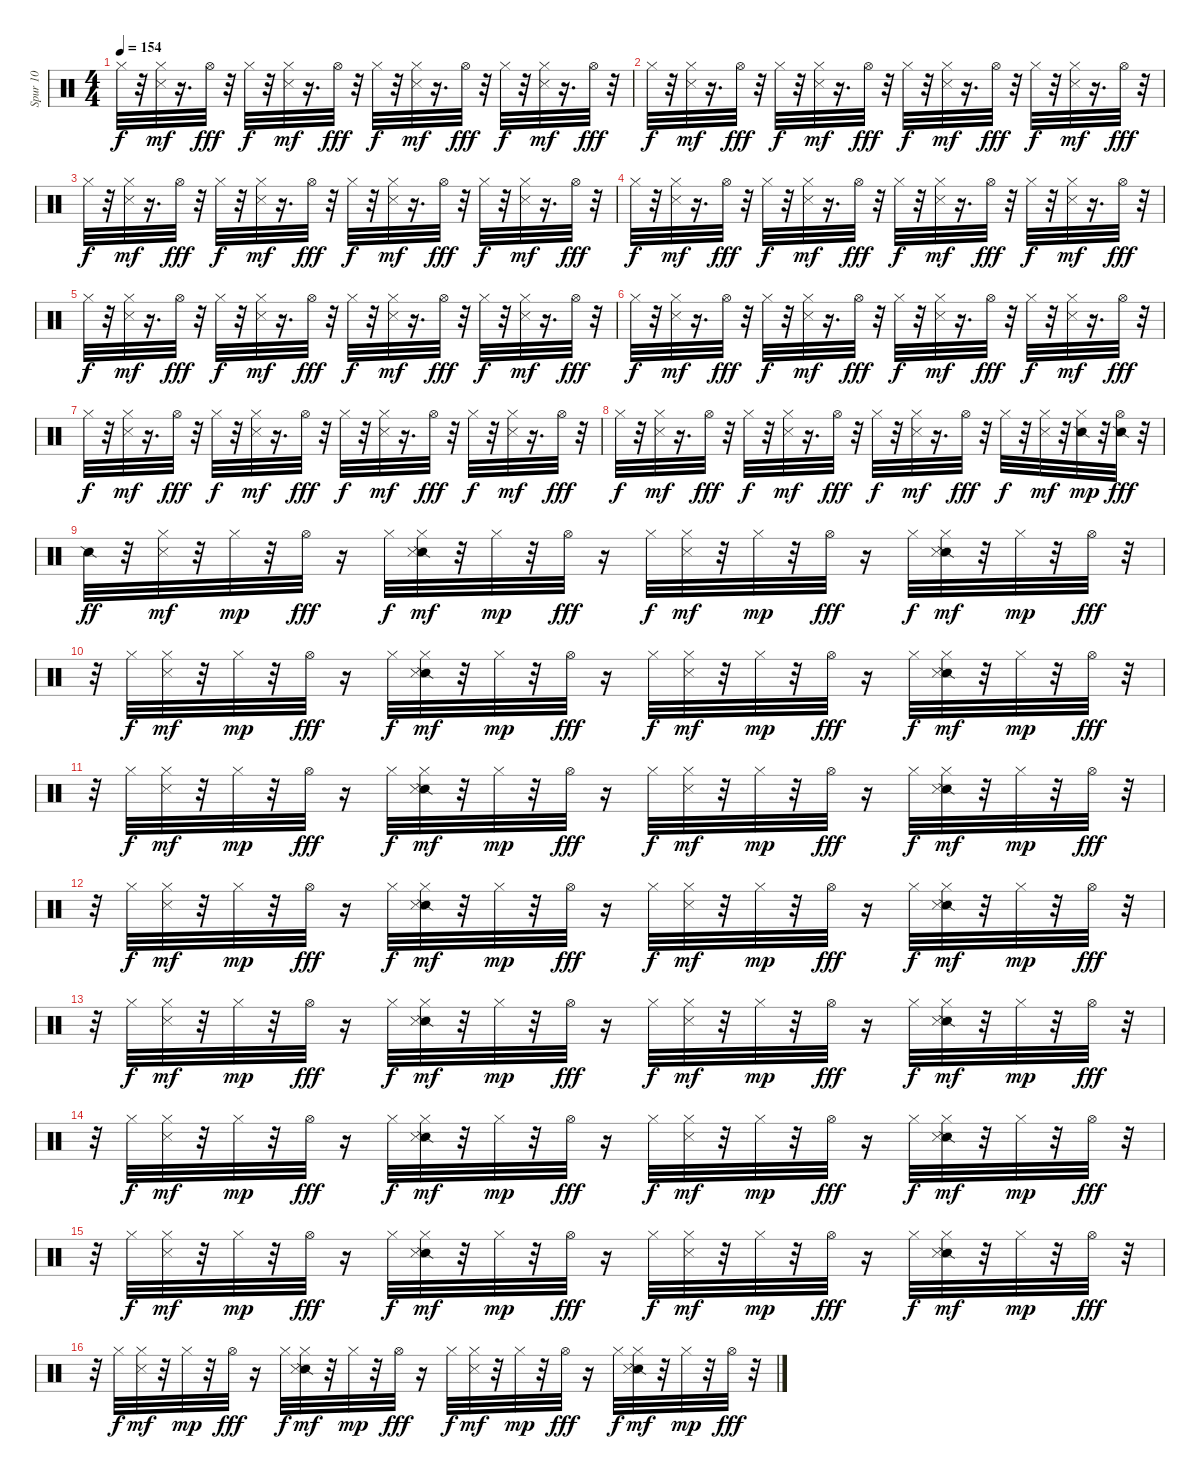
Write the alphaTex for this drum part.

\track ("Spur 10" "Spur 10") {instrument percussion}
\staff {score}
\articulation defaults
\ts (4 4)
\tempo 154
\clef neutral
\ks c "Hi-Hat (closed)".32{dy f}
r.32 ("Metronome (hit)" "Hi-Hat (closed)").32{dy mf} r.16{d} "Hi-Hat (open)".32{dy fff} r.32 "Hi-Hat (closed)".32{dy f} r.32 ("Metronome (hit)" "Hi-Hat (closed)").32{dy mf} r.16{d} "Hi-Hat (open)".32{dy fff} r.32 "Hi-Hat (closed)".32{dy f} r.32 ("Metronome (hit)" "Hi-Hat (closed)").32{dy mf} r.16{d} "Hi-Hat (open)".32{dy fff} r.32 "Hi-Hat (closed)".32{dy f} r.32 ("Metronome (hit)" "Hi-Hat (closed)").32{dy mf} r.16{d} "Hi-Hat (open)".32{dy fff} r.32 |
"Hi-Hat (closed)".32{dy f} r.32 ("Metronome (hit)" "Hi-Hat (closed)").32{dy mf} r.16{d} "Hi-Hat (open)".32{dy fff} r.32 "Hi-Hat (closed)".32{dy f} r.32 ("Metronome (hit)" "Hi-Hat (closed)").32{dy mf} r.16{d} "Hi-Hat (open)".32{dy fff} r.32 "Hi-Hat (closed)".32{dy f} r.32 ("Metronome (hit)" "Hi-Hat (closed)").32{dy mf} r.16{d} "Hi-Hat (open)".32{dy fff} r.32 "Hi-Hat (closed)".32{dy f} r.32 ("Metronome (hit)" "Hi-Hat (closed)").32{dy mf} r.16{d} "Hi-Hat (open)".32{dy fff} r.32 |
"Hi-Hat (closed)".32{dy f} r.32 ("Metronome (hit)" "Hi-Hat (closed)").32{dy mf} r.16{d} "Hi-Hat (open)".32{dy fff} r.32 "Hi-Hat (closed)".32{dy f} r.32 ("Metronome (hit)" "Hi-Hat (closed)").32{dy mf} r.16{d} "Hi-Hat (open)".32{dy fff} r.32 "Hi-Hat (closed)".32{dy f} r.32 ("Metronome (hit)" "Hi-Hat (closed)").32{dy mf} r.16{d} "Hi-Hat (open)".32{dy fff} r.32 "Hi-Hat (closed)".32{dy f} r.32 ("Metronome (hit)" "Hi-Hat (closed)").32{dy mf} r.16{d} "Hi-Hat (open)".32{dy fff} r.32 |
"Hi-Hat (closed)".32{dy f} r.32 ("Metronome (hit)" "Hi-Hat (closed)").32{dy mf} r.16{d} "Hi-Hat (open)".32{dy fff} r.32 "Hi-Hat (closed)".32{dy f} r.32 ("Metronome (hit)" "Hi-Hat (closed)").32{dy mf} r.16{d} "Hi-Hat (open)".32{dy fff} r.32 "Hi-Hat (closed)".32{dy f} r.32 ("Metronome (hit)" "Hi-Hat (closed)").32{dy mf} r.16{d} "Hi-Hat (open)".32{dy fff} r.32 "Hi-Hat (closed)".32{dy f} r.32 ("Metronome (hit)" "Hi-Hat (closed)").32{dy mf} r.16{d} "Hi-Hat (open)".32{dy fff} r.32 |
"Hi-Hat (closed)".32{dy f} r.32 ("Metronome (hit)" "Hi-Hat (closed)").32{dy mf} r.16{d} "Hi-Hat (open)".32{dy fff} r.32 "Hi-Hat (closed)".32{dy f} r.32 ("Metronome (hit)" "Hi-Hat (closed)").32{dy mf} r.16{d} "Hi-Hat (open)".32{dy fff} r.32 "Hi-Hat (closed)".32{dy f} r.32 ("Metronome (hit)" "Hi-Hat (closed)").32{dy mf} r.16{d} "Hi-Hat (open)".32{dy fff} r.32 "Hi-Hat (closed)".32{dy f} r.32 ("Metronome (hit)" "Hi-Hat (closed)").32{dy mf} r.16{d} "Hi-Hat (open)".32{dy fff} r.32 |
"Hi-Hat (closed)".32{dy f} r.32 ("Metronome (hit)" "Hi-Hat (closed)").32{dy mf} r.16{d} "Hi-Hat (open)".32{dy fff} r.32 "Hi-Hat (closed)".32{dy f} r.32 ("Metronome (hit)" "Hi-Hat (closed)").32{dy mf} r.16{d} "Hi-Hat (open)".32{dy fff} r.32 "Hi-Hat (closed)".32{dy f} r.32 ("Metronome (hit)" "Hi-Hat (closed)").32{dy mf} r.16{d} "Hi-Hat (open)".32{dy fff} r.32 "Hi-Hat (closed)".32{dy f} r.32 ("Metronome (hit)" "Hi-Hat (closed)").32{dy mf} r.16{d} "Hi-Hat (open)".32{dy fff} r.32 |
"Hi-Hat (closed)".32{dy f} r.32 ("Metronome (hit)" "Hi-Hat (closed)").32{dy mf} r.16{d} "Hi-Hat (open)".32{dy fff} r.32 "Hi-Hat (closed)".32{dy f} r.32 ("Metronome (hit)" "Hi-Hat (closed)").32{dy mf} r.16{d} "Hi-Hat (open)".32{dy fff} r.32 "Hi-Hat (closed)".32{dy f} r.32 ("Metronome (hit)" "Hi-Hat (closed)").32{dy mf} r.16{d} "Hi-Hat (open)".32{dy fff} r.32 "Hi-Hat (closed)".32{dy f} r.32 ("Metronome (hit)" "Hi-Hat (closed)").32{dy mf} r.16{d} "Hi-Hat (open)".32{dy fff} r.32 |
"Hi-Hat (closed)".32{dy f} r.32 ("Metronome (hit)" "Hi-Hat (closed)").32{dy mf} r.16{d} "Hi-Hat (open)".32{dy fff} r.32 "Hi-Hat (closed)".32{dy f} r.32 ("Metronome (hit)" "Hi-Hat (closed)").32{dy mf} r.16{d} "Hi-Hat (open)".32{dy fff} r.32 "Hi-Hat (closed)".32{dy f} r.32 ("Metronome (hit)" "Hi-Hat (closed)").32{dy mf} r.16{d} "Hi-Hat (open)".32{dy fff} r.32 "Hi-Hat (closed)".32{dy f} r.32 ("Metronome (hit)" "Hi-Hat (closed)").32{dy mf} r.32 ("Snare (side stick) 2" "Hi-Hat (closed)").32{dy mp} r.32 ("Snare (side stick) 2" "Hi-Hat (open)").32{dy fff} r.32 |
"Snare (side stick) 2".32{dy ff} r.32 ("Metronome (hit)" "Hi-Hat (closed)").32{dy mf} r.32 "Hi-Hat (closed)".32{dy mp} r.32 "Hi-Hat (open)".32{dy fff} r.16 "Hi-Hat (closed)".32{dy f} ("Snare (side stick) 2" "Metronome (hit)" "Hi-Hat (closed)").32{dy mf} r.32 "Hi-Hat (closed)".32{dy mp} r.32 "Hi-Hat (open)".32{dy fff} r.16 "Hi-Hat (closed)".32{dy f} ("Metronome (hit)" "Hi-Hat (closed)").32{dy mf} r.32 "Hi-Hat (closed)".32{dy mp} r.32 "Hi-Hat (open)".32{dy fff} r.16 "Hi-Hat (closed)".32{dy f} ("Snare (side stick) 2" "Metronome (hit)" "Hi-Hat (closed)").32{dy mf} r.32 "Hi-Hat (closed)".32{dy mp} r.32 "Hi-Hat (open)".32{dy fff} r.32 |
r.32 "Hi-Hat (closed)".32{dy f} ("Metronome (hit)" "Hi-Hat (closed)").32{dy mf} r.32 "Hi-Hat (closed)".32{dy mp} r.32 "Hi-Hat (open)".32{dy fff} r.16 "Hi-Hat (closed)".32{dy f} ("Snare (side stick) 2" "Metronome (hit)" "Hi-Hat (closed)").32{dy mf} r.32 "Hi-Hat (closed)".32{dy mp} r.32 "Hi-Hat (open)".32{dy fff} r.16 "Hi-Hat (closed)".32{dy f} ("Metronome (hit)" "Hi-Hat (closed)").32{dy mf} r.32 "Hi-Hat (closed)".32{dy mp} r.32 "Hi-Hat (open)".32{dy fff} r.16 "Hi-Hat (closed)".32{dy f} ("Snare (side stick) 2" "Metronome (hit)" "Hi-Hat (closed)").32{dy mf} r.32 "Hi-Hat (closed)".32{dy mp} r.32 "Hi-Hat (open)".32{dy fff} r.32 |
r.32 "Hi-Hat (closed)".32{dy f} ("Metronome (hit)" "Hi-Hat (closed)").32{dy mf} r.32 "Hi-Hat (closed)".32{dy mp} r.32 "Hi-Hat (open)".32{dy fff} r.16 "Hi-Hat (closed)".32{dy f} ("Snare (side stick) 2" "Metronome (hit)" "Hi-Hat (closed)").32{dy mf} r.32 "Hi-Hat (closed)".32{dy mp} r.32 "Hi-Hat (open)".32{dy fff} r.16 "Hi-Hat (closed)".32{dy f} ("Metronome (hit)" "Hi-Hat (closed)").32{dy mf} r.32 "Hi-Hat (closed)".32{dy mp} r.32 "Hi-Hat (open)".32{dy fff} r.16 "Hi-Hat (closed)".32{dy f} ("Snare (side stick) 2" "Metronome (hit)" "Hi-Hat (closed)").32{dy mf} r.32 "Hi-Hat (closed)".32{dy mp} r.32 "Hi-Hat (open)".32{dy fff} r.32 |
r.32 "Hi-Hat (closed)".32{dy f} ("Metronome (hit)" "Hi-Hat (closed)").32{dy mf} r.32 "Hi-Hat (closed)".32{dy mp} r.32 "Hi-Hat (open)".32{dy fff} r.16 "Hi-Hat (closed)".32{dy f} ("Snare (side stick) 2" "Metronome (hit)" "Hi-Hat (closed)").32{dy mf} r.32 "Hi-Hat (closed)".32{dy mp} r.32 "Hi-Hat (open)".32{dy fff} r.16 "Hi-Hat (closed)".32{dy f} ("Metronome (hit)" "Hi-Hat (closed)").32{dy mf} r.32 "Hi-Hat (closed)".32{dy mp} r.32 "Hi-Hat (open)".32{dy fff} r.16 "Hi-Hat (closed)".32{dy f} ("Snare (side stick) 2" "Metronome (hit)" "Hi-Hat (closed)").32{dy mf} r.32 "Hi-Hat (closed)".32{dy mp} r.32 "Hi-Hat (open)".32{dy fff} r.32 |
r.32 "Hi-Hat (closed)".32{dy f} ("Metronome (hit)" "Hi-Hat (closed)").32{dy mf} r.32 "Hi-Hat (closed)".32{dy mp} r.32 "Hi-Hat (open)".32{dy fff} r.16 "Hi-Hat (closed)".32{dy f} ("Snare (side stick) 2" "Metronome (hit)" "Hi-Hat (closed)").32{dy mf} r.32 "Hi-Hat (closed)".32{dy mp} r.32 "Hi-Hat (open)".32{dy fff} r.16 "Hi-Hat (closed)".32{dy f} ("Metronome (hit)" "Hi-Hat (closed)").32{dy mf} r.32 "Hi-Hat (closed)".32{dy mp} r.32 "Hi-Hat (open)".32{dy fff} r.16 "Hi-Hat (closed)".32{dy f} ("Snare (side stick) 2" "Metronome (hit)" "Hi-Hat (closed)").32{dy mf} r.32 "Hi-Hat (closed)".32{dy mp} r.32 "Hi-Hat (open)".32{dy fff} r.32 |
r.32 "Hi-Hat (closed)".32{dy f} ("Metronome (hit)" "Hi-Hat (closed)").32{dy mf} r.32 "Hi-Hat (closed)".32{dy mp} r.32 "Hi-Hat (open)".32{dy fff} r.16 "Hi-Hat (closed)".32{dy f} ("Snare (side stick) 2" "Metronome (hit)" "Hi-Hat (closed)").32{dy mf} r.32 "Hi-Hat (closed)".32{dy mp} r.32 "Hi-Hat (open)".32{dy fff} r.16 "Hi-Hat (closed)".32{dy f} ("Metronome (hit)" "Hi-Hat (closed)").32{dy mf} r.32 "Hi-Hat (closed)".32{dy mp} r.32 "Hi-Hat (open)".32{dy fff} r.16 "Hi-Hat (closed)".32{dy f} ("Snare (side stick) 2" "Metronome (hit)" "Hi-Hat (closed)").32{dy mf} r.32 "Hi-Hat (closed)".32{dy mp} r.32 "Hi-Hat (open)".32{dy fff} r.32 |
r.32 "Hi-Hat (closed)".32{dy f} ("Metronome (hit)" "Hi-Hat (closed)").32{dy mf} r.32 "Hi-Hat (closed)".32{dy mp} r.32 "Hi-Hat (open)".32{dy fff} r.16 "Hi-Hat (closed)".32{dy f} ("Snare (side stick) 2" "Metronome (hit)" "Hi-Hat (closed)").32{dy mf} r.32 "Hi-Hat (closed)".32{dy mp} r.32 "Hi-Hat (open)".32{dy fff} r.16 "Hi-Hat (closed)".32{dy f} ("Metronome (hit)" "Hi-Hat (closed)").32{dy mf} r.32 "Hi-Hat (closed)".32{dy mp} r.32 "Hi-Hat (open)".32{dy fff} r.16 "Hi-Hat (closed)".32{dy f} ("Snare (side stick) 2" "Metronome (hit)" "Hi-Hat (closed)").32{dy mf} r.32 "Hi-Hat (closed)".32{dy mp} r.32 "Hi-Hat (open)".32{dy fff} r.32 |
r.32 "Hi-Hat (closed)".32{dy f} ("Metronome (hit)" "Hi-Hat (closed)").32{dy mf} r.32 "Hi-Hat (closed)".32{dy mp} r.32 "Hi-Hat (open)".32{dy fff} r.16 "Hi-Hat (closed)".32{dy f} ("Snare (side stick) 2" "Metronome (hit)" "Hi-Hat (closed)").32{dy mf} r.32 "Hi-Hat (closed)".32{dy mp} r.32 "Hi-Hat (open)".32{dy fff} r.16 "Hi-Hat (closed)".32{dy f} ("Metronome (hit)" "Hi-Hat (closed)").32{dy mf} r.32 "Hi-Hat (closed)".32{dy mp} r.32 "Hi-Hat (open)".32{dy fff} r.16 "Hi-Hat (closed)".32{dy f} ("Snare (side stick) 2" "Metronome (hit)" "Hi-Hat (closed)").32{dy mf} r.32 "Hi-Hat (closed)".32{dy mp} r.32 "Hi-Hat (open)".32{dy fff} r.32
